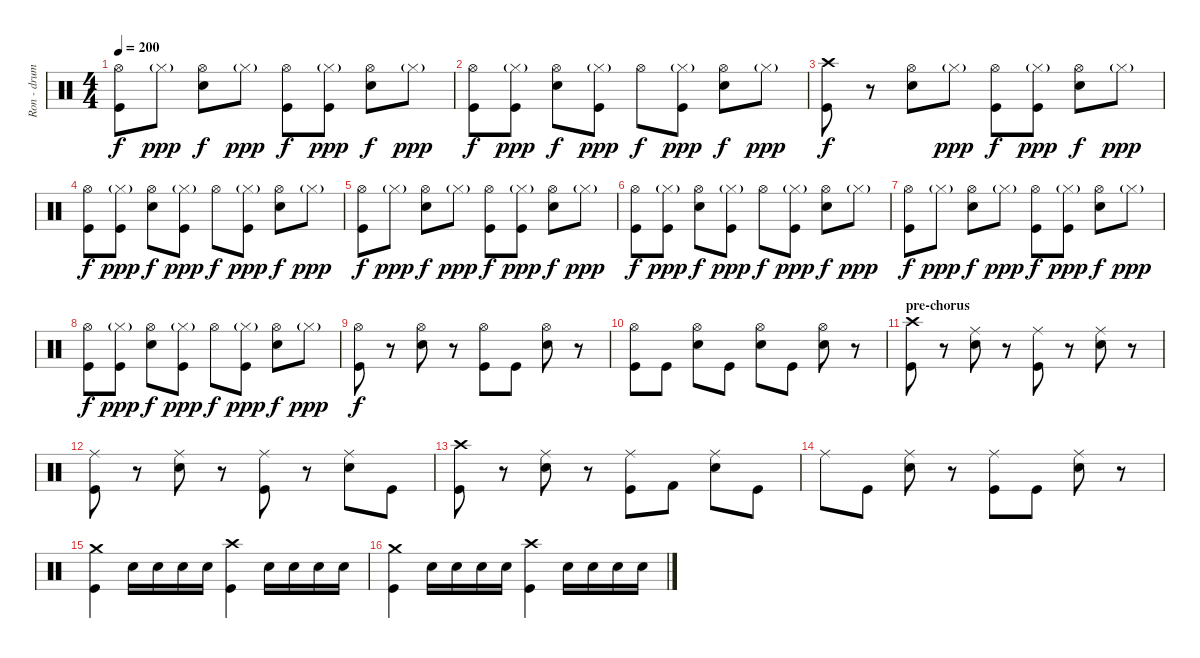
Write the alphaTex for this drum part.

\track ("Ron - drums" "Ron - drum") {instrument percussion}
\staff {score}
\articulation defaults
\ts (4 4)
\tempo 200
\clef neutral
\ks c
("Hi-Hat (open)" "Kick (hit)").8{dy f} "Hi-Hat (closed)"{g}.8{dy ppp} ("Hi-Hat (open)" "Snare (hit) 2").8{dy f} "Hi-Hat (closed)"{g}.8{dy ppp} ("Hi-Hat (open)" "Kick (hit)").8{dy f} ("Hi-Hat (closed)"{g} "Kick (hit)").8{dy ppp} ("Hi-Hat (open)" "Snare (hit) 2").8{dy f} "Hi-Hat (closed)"{g}.8{dy ppp} |
("Hi-Hat (open)" "Kick (hit)").8{dy f} ("Hi-Hat (closed)"{g} "Kick (hit)").8{dy ppp} ("Hi-Hat (open)" "Snare (hit) 2").8{dy f} ("Hi-Hat (closed)"{g} "Kick (hit)").8{dy ppp} "Hi-Hat (open)".8{dy f} ("Hi-Hat (closed)"{g} "Kick (hit)").8{dy ppp} ("Hi-Hat (open)" "Snare (hit) 2").8{dy f} "Hi-Hat (closed)"{g}.8{dy ppp} |
("Crash high (hit)" "Kick (hit)").8{dy f} r.8 ("Hi-Hat (open)" "Snare (hit) 2").8 "Hi-Hat (closed)"{g}.8{dy ppp} ("Hi-Hat (open)" "Kick (hit)").8{dy f} ("Hi-Hat (closed)"{g} "Kick (hit)").8{dy ppp} ("Hi-Hat (open)" "Snare (hit) 2").8{dy f} "Hi-Hat (closed)"{g}.8{dy ppp} |
("Hi-Hat (open)" "Kick (hit)").8{dy f} ("Hi-Hat (closed)"{g} "Kick (hit)").8{dy ppp} ("Hi-Hat (open)" "Snare (hit) 2").8{dy f} ("Hi-Hat (closed)"{g} "Kick (hit)").8{dy ppp} "Hi-Hat (open)".8{dy f} ("Hi-Hat (closed)"{g} "Kick (hit)").8{dy ppp} ("Hi-Hat (open)" "Snare (hit) 2").8{dy f} "Hi-Hat (closed)"{g}.8{dy ppp} |
("Hi-Hat (open)" "Kick (hit)").8{dy f} "Hi-Hat (closed)"{g}.8{dy ppp} ("Hi-Hat (open)" "Snare (hit) 2").8{dy f} "Hi-Hat (closed)"{g}.8{dy ppp} ("Hi-Hat (open)" "Kick (hit)").8{dy f} ("Hi-Hat (closed)"{g} "Kick (hit)").8{dy ppp} ("Hi-Hat (open)" "Snare (hit) 2").8{dy f} "Hi-Hat (closed)"{g}.8{dy ppp} |
("Hi-Hat (open)" "Kick (hit)").8{dy f} ("Hi-Hat (closed)"{g} "Kick (hit)").8{dy ppp} ("Hi-Hat (open)" "Snare (hit) 2").8{dy f} ("Hi-Hat (closed)"{g} "Kick (hit)").8{dy ppp} "Hi-Hat (open)".8{dy f} ("Hi-Hat (closed)"{g} "Kick (hit)").8{dy ppp} ("Hi-Hat (open)" "Snare (hit) 2").8{dy f} "Hi-Hat (closed)"{g}.8{dy ppp} |
("Hi-Hat (open)" "Kick (hit)").8{dy f} "Hi-Hat (closed)"{g}.8{dy ppp} ("Hi-Hat (open)" "Snare (hit) 2").8{dy f} "Hi-Hat (closed)"{g}.8{dy ppp} ("Hi-Hat (open)" "Kick (hit)").8{dy f} ("Hi-Hat (closed)"{g} "Kick (hit)").8{dy ppp} ("Hi-Hat (open)" "Snare (hit) 2").8{dy f} "Hi-Hat (closed)"{g}.8{dy ppp} |
("Hi-Hat (open)" "Kick (hit)").8{dy f} ("Hi-Hat (closed)"{g} "Kick (hit)").8{dy ppp} ("Hi-Hat (open)" "Snare (hit) 2").8{dy f} ("Hi-Hat (closed)"{g} "Kick (hit)").8{dy ppp} "Hi-Hat (open)".8{dy f} ("Hi-Hat (closed)"{g} "Kick (hit)").8{dy ppp} ("Hi-Hat (open)" "Snare (hit) 2").8{dy f} "Hi-Hat (closed)"{g}.8{dy ppp} |
("Hi-Hat (open)" "Kick (hit)").8{dy f} r.8 ("Hi-Hat (open)" "Snare (hit) 2").8 r.8 ("Hi-Hat (open)" "Kick (hit)").8 "Kick (hit)".8 ("Hi-Hat (open)" "Snare (hit) 2").8 r.8 |
("Hi-Hat (open)" "Kick (hit)").8 "Kick (hit)".8 ("Hi-Hat (open)" "Snare (hit) 2").8 "Kick (hit)".8 ("Hi-Hat (open)" "Snare (hit) 2").8 "Kick (hit)".8 ("Hi-Hat (open)" "Snare (hit) 2").8 r.8 |
\section ("" "pre-chorus")
("Crash high (hit)" "Kick (hit)").8 r.8 ("Ride (middle)" "Snare (hit) 2").8 r.8 ("Ride (middle)" "Kick (hit)").8 r.8 ("Ride (middle)" "Snare (hit) 2").8 r.8 |
("Ride (middle)" "Kick (hit)").8 r.8 ("Ride (middle)" "Snare (hit) 2").8 r.8 ("Ride (middle)" "Kick (hit)").8 r.8 ("Ride (middle)" "Snare (hit) 2").8 "Kick (hit)".8 |
("Crash high (hit)" "Kick (hit)").8 r.8 ("Ride (middle)" "Snare (hit) 2").8 r.8 ("Ride (middle)" "Kick (hit)").8 "Kick (hit) 2".8 ("Ride (middle)" "Snare (hit) 2").8 "Kick (hit)".8 |
"Ride (middle)".8 "Kick (hit)".8 ("Ride (middle)" "Snare (hit) 2").8 r.8 ("Ride (middle)" "Kick (hit)").8 "Kick (hit)".8 ("Ride (middle)" "Snare (hit) 2").8 r.8 |
("Crash medium (hit)" "Kick (hit)").4 "Snare (hit) 2".16 "Snare (hit) 2".16 "Snare (hit) 2".16 "Snare (hit) 2".16 ("Crash high (hit)" "Kick (hit)").4 "Snare (hit) 2".16 "Snare (hit) 2".16 "Snare (hit) 2".16 "Snare (hit) 2".16 |
("Crash medium (hit)" "Kick (hit)").4 "Snare (hit) 2".16 "Snare (hit) 2".16 "Snare (hit) 2".16 "Snare (hit) 2".16 ("Crash high (hit)" "Kick (hit)").4 "Snare (hit) 2".16 "Snare (hit) 2".16 "Snare (hit) 2".16 "Snare (hit) 2".16
